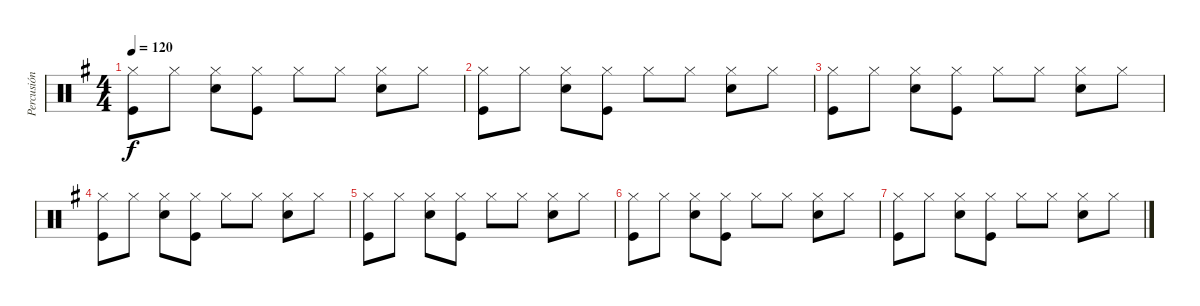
\track ("Percusión" "Percusión") {instrument percussion}
\staff {score}
\articulation defaults
\ts (4 4)
\tempo 120
\clef neutral
\ks g
("Hi-Hat (closed)" "Kick (hit)").8{dy f} "Hi-Hat (closed)".8 ("Hi-Hat (closed)" "Electric Snare (hit)").8 ("Hi-Hat (closed)" "Kick (hit)").8 "Hi-Hat (closed)".8 "Hi-Hat (closed)".8 ("Hi-Hat (closed)" "Electric Snare (hit)").8 "Hi-Hat (closed)".8 |
("Hi-Hat (closed)" "Kick (hit)").8 "Hi-Hat (closed)".8 ("Hi-Hat (closed)" "Electric Snare (hit)").8 ("Hi-Hat (closed)" "Kick (hit)").8 "Hi-Hat (closed)".8 "Hi-Hat (closed)".8 ("Hi-Hat (closed)" "Electric Snare (hit)").8 "Hi-Hat (closed)".8 |
("Hi-Hat (closed)" "Kick (hit)").8 "Hi-Hat (closed)".8 ("Hi-Hat (closed)" "Electric Snare (hit)").8 ("Hi-Hat (closed)" "Kick (hit)").8 "Hi-Hat (closed)".8 "Hi-Hat (closed)".8 ("Hi-Hat (closed)" "Electric Snare (hit)").8 "Hi-Hat (closed)".8 |
("Hi-Hat (closed)" "Kick (hit)").8 "Hi-Hat (closed)".8 ("Hi-Hat (closed)" "Electric Snare (hit)").8 ("Hi-Hat (closed)" "Kick (hit)").8 "Hi-Hat (closed)".8 "Hi-Hat (closed)".8 ("Hi-Hat (closed)" "Electric Snare (hit)").8 "Hi-Hat (closed)".8 |
("Hi-Hat (closed)" "Kick (hit)").8 "Hi-Hat (closed)".8 ("Hi-Hat (closed)" "Electric Snare (hit)").8 ("Hi-Hat (closed)" "Kick (hit)").8 "Hi-Hat (closed)".8 "Hi-Hat (closed)".8 ("Hi-Hat (closed)" "Electric Snare (hit)").8 "Hi-Hat (closed)".8 |
("Hi-Hat (closed)" "Kick (hit)").8 "Hi-Hat (closed)".8 ("Hi-Hat (closed)" "Electric Snare (hit)").8 ("Hi-Hat (closed)" "Kick (hit)").8 "Hi-Hat (closed)".8 "Hi-Hat (closed)".8 ("Hi-Hat (closed)" "Electric Snare (hit)").8 "Hi-Hat (closed)".8 |
("Hi-Hat (closed)" "Kick (hit)").8 "Hi-Hat (closed)".8 ("Hi-Hat (closed)" "Electric Snare (hit)").8 ("Hi-Hat (closed)" "Kick (hit)").8 "Hi-Hat (closed)".8 "Hi-Hat (closed)".8 ("Hi-Hat (closed)" "Electric Snare (hit)").8 "Hi-Hat (closed)".8
